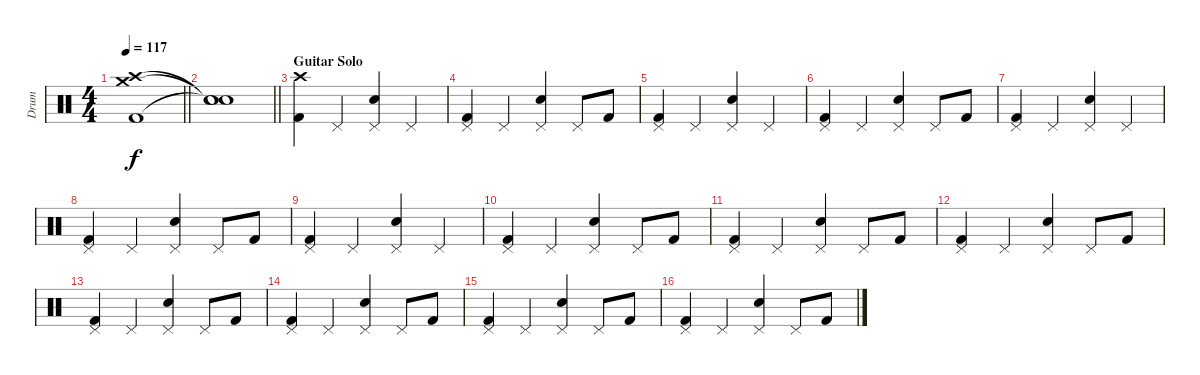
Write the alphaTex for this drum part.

\track ("Drum" "Drum") {instrument percussion}
\staff {score}
\articulation defaults
\ts (4 4)
\tempo 117
\clef neutral
\barLineRight lightlight
\ks c
("Crash high (hit)" "Crash medium (hit)" "Kick (hit) 2").1{dy f} |
\barLineRight lightlight
("Snare (hit)"{t} "Snare (hit)"{t} "Snare (hit)"{t}).1 |
\section ("" "Guitar Solo")
("Crash high (hit)" "Kick (hit) 2").4 "Pedal Hi-Hat (hit)".4 ("Pedal Hi-Hat (hit)" "Electric Snare (hit)").4 "Pedal Hi-Hat (hit)".4 |
("Pedal Hi-Hat (hit)" "Kick (hit) 2").4 "Pedal Hi-Hat (hit)".4 ("Pedal Hi-Hat (hit)" "Electric Snare (hit)").4 "Pedal Hi-Hat (hit)".8 "Kick (hit) 2".8 |
("Pedal Hi-Hat (hit)" "Kick (hit) 2").4 "Pedal Hi-Hat (hit)".4 ("Pedal Hi-Hat (hit)" "Electric Snare (hit)").4 "Pedal Hi-Hat (hit)".4 |
("Pedal Hi-Hat (hit)" "Kick (hit) 2").4 "Pedal Hi-Hat (hit)".4 ("Pedal Hi-Hat (hit)" "Electric Snare (hit)").4 "Pedal Hi-Hat (hit)".8 "Kick (hit) 2".8 |
("Pedal Hi-Hat (hit)" "Kick (hit) 2").4 "Pedal Hi-Hat (hit)".4 ("Pedal Hi-Hat (hit)" "Electric Snare (hit)").4 "Pedal Hi-Hat (hit)".4 |
("Pedal Hi-Hat (hit)" "Kick (hit) 2").4 "Pedal Hi-Hat (hit)".4 ("Pedal Hi-Hat (hit)" "Electric Snare (hit)").4 "Pedal Hi-Hat (hit)".8 "Kick (hit) 2".8 |
("Pedal Hi-Hat (hit)" "Kick (hit) 2").4 "Pedal Hi-Hat (hit)".4 ("Pedal Hi-Hat (hit)" "Electric Snare (hit)").4 "Pedal Hi-Hat (hit)".4 |
("Pedal Hi-Hat (hit)" "Kick (hit) 2").4 "Pedal Hi-Hat (hit)".4 ("Pedal Hi-Hat (hit)" "Electric Snare (hit)").4 "Pedal Hi-Hat (hit)".8 "Kick (hit) 2".8 |
("Pedal Hi-Hat (hit)" "Kick (hit) 2").4 "Pedal Hi-Hat (hit)".4 ("Pedal Hi-Hat (hit)" "Electric Snare (hit)").4 "Pedal Hi-Hat (hit)".8 "Kick (hit) 2".8 |
("Pedal Hi-Hat (hit)" "Kick (hit) 2").4 "Pedal Hi-Hat (hit)".4 ("Pedal Hi-Hat (hit)" "Electric Snare (hit)").4 "Pedal Hi-Hat (hit)".8 "Kick (hit) 2".8 |
("Pedal Hi-Hat (hit)" "Kick (hit) 2").4 "Pedal Hi-Hat (hit)".4 ("Pedal Hi-Hat (hit)" "Electric Snare (hit)").4 "Pedal Hi-Hat (hit)".8 "Kick (hit) 2".8 |
("Pedal Hi-Hat (hit)" "Kick (hit) 2").4 "Pedal Hi-Hat (hit)".4 ("Pedal Hi-Hat (hit)" "Electric Snare (hit)").4 "Pedal Hi-Hat (hit)".8 "Kick (hit) 2".8 |
("Pedal Hi-Hat (hit)" "Kick (hit) 2").4 "Pedal Hi-Hat (hit)".4 ("Pedal Hi-Hat (hit)" "Electric Snare (hit)").4 "Pedal Hi-Hat (hit)".8 "Kick (hit) 2".8 |
("Pedal Hi-Hat (hit)" "Kick (hit) 2").4 "Pedal Hi-Hat (hit)".4 ("Pedal Hi-Hat (hit)" "Electric Snare (hit)").4 "Pedal Hi-Hat (hit)".8 "Kick (hit) 2".8
